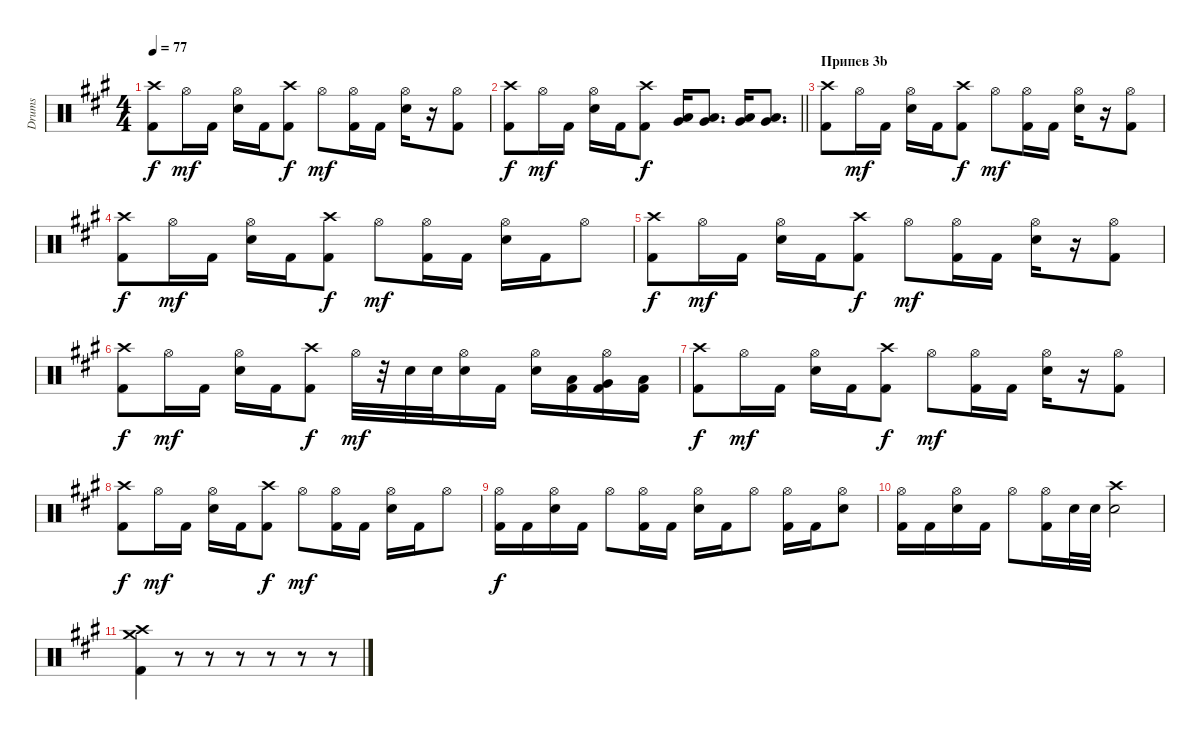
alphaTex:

\track ("Drums" "Drums") {instrument percussion}
\staff {score}
\articulation defaults
\ts (4 4)
\tempo 77
\clef neutral
\ks f#minor
("Crash high (hit)" "Kick (hit) 2").8{dy f} "Hi-Hat (open)".16{dy mf} "Kick (hit) 2".16 ("Hi-Hat (open)" "Electric Snare (hit)").16 "Kick (hit) 2".16 ("Crash high (hit)" "Kick (hit) 2").8{dy f} "Hi-Hat (open)".8{dy mf} ("Hi-Hat (open)" "Kick (hit) 2").16 "Kick (hit) 2".16 ("Hi-Hat (open)" "Electric Snare (hit)").16 r.16 ("Hi-Hat (open)" "Kick (hit) 2").8 |
\barLineRight lightlight
("Crash high (hit)" "Kick (hit) 2").8{dy f} "Hi-Hat (open)".16{dy mf} "Kick (hit) 2".16 ("Hi-Hat (open)" "Electric Snare (hit)").16 "Kick (hit) 2".16 ("Crash high (hit)" "Kick (hit) 2").8{dy f} ("Low Tom (hit)" "Very Low Tom (hit)").16 ("Low Tom (hit)" "Very Low Tom (hit)").8{d} ("Very Low Tom (hit)" "Low Floor Tom (hit)").16 ("Very Low Tom (hit)" "Low Floor Tom (hit)").8{d} |
\section ("" "Припев 3b")
("Crash high (hit)" "Kick (hit) 2").8 "Hi-Hat (open)".16{dy mf} "Kick (hit) 2".16 ("Hi-Hat (open)" "Electric Snare (hit)").16 "Kick (hit) 2".16 ("Crash high (hit)" "Kick (hit) 2").8{dy f} "Hi-Hat (open)".8{dy mf} ("Hi-Hat (open)" "Kick (hit) 2").16 "Kick (hit) 2".16 ("Hi-Hat (open)" "Electric Snare (hit)").16 r.16 ("Hi-Hat (open)" "Kick (hit) 2").8 |
("Crash high (hit)" "Kick (hit) 2").8{dy f} "Hi-Hat (open)".16{dy mf} "Kick (hit) 2".16 ("Hi-Hat (open)" "Electric Snare (hit)").16 "Kick (hit) 2".16 ("Crash high (hit)" "Kick (hit) 2").8{dy f} "Hi-Hat (open)".8{dy mf} ("Hi-Hat (open)" "Kick (hit) 2").16 "Kick (hit) 2".16 ("Hi-Hat (open)" "Electric Snare (hit)").16 "Kick (hit) 2".16 "Hi-Hat (open)".8 |
("Crash high (hit)" "Kick (hit) 2").8{dy f} "Hi-Hat (open)".16{dy mf} "Kick (hit) 2".16 ("Hi-Hat (open)" "Electric Snare (hit)").16 "Kick (hit) 2".16 ("Crash high (hit)" "Kick (hit) 2").8{dy f} "Hi-Hat (open)".8{dy mf} ("Hi-Hat (open)" "Kick (hit) 2").16 "Kick (hit) 2".16 ("Hi-Hat (open)" "Electric Snare (hit)").16 r.16 ("Hi-Hat (open)" "Kick (hit) 2").8 |
("Crash high (hit)" "Kick (hit) 2").8{dy f} "Hi-Hat (open)".16{dy mf} "Kick (hit) 2".16 ("Hi-Hat (open)" "Electric Snare (hit)").16 "Kick (hit) 2".16 ("Crash high (hit)" "Kick (hit) 2").8{dy f} "Hi-Hat (open)".32{dy mf} r.32 "Electric Snare (hit)".32 "Electric Snare (hit)".32 ("Hi-Hat (open)" "Electric Snare (hit)").16 "Kick (hit) 2".16 ("Hi-Hat (open)" "Electric Snare (hit)").16 ("Low Tom (hit)" "Kick (hit) 2").16 ("Hi-Hat (open)" "Very Low Tom (hit)" "Kick (hit) 2").16 ("Low Floor Tom (hit)" "Kick (hit) 2").16 |
("Crash high (hit)" "Kick (hit) 2").8{dy f} "Hi-Hat (open)".16{dy mf} "Kick (hit) 2".16 ("Hi-Hat (open)" "Electric Snare (hit)").16 "Kick (hit) 2".16 ("Crash high (hit)" "Kick (hit) 2").8{dy f} "Hi-Hat (open)".8{dy mf} ("Hi-Hat (open)" "Kick (hit) 2").16 "Kick (hit) 2".16 ("Hi-Hat (open)" "Electric Snare (hit)").16 r.16 ("Hi-Hat (open)" "Kick (hit) 2").8 |
("Crash high (hit)" "Kick (hit) 2").8{dy f} "Hi-Hat (open)".16{dy mf} "Kick (hit) 2".16 ("Hi-Hat (open)" "Electric Snare (hit)").16 "Kick (hit) 2".16 ("Crash high (hit)" "Kick (hit) 2").8{dy f} "Hi-Hat (open)".8{dy mf} ("Hi-Hat (open)" "Kick (hit) 2").16 "Kick (hit) 2".16 ("Hi-Hat (open)" "Electric Snare (hit)").16 "Kick (hit) 2".16 "Hi-Hat (open)".8 |
("Hi-Hat (open)" "Kick (hit) 2").16{dy f} "Kick (hit) 2".16 ("Hi-Hat (open)" "Electric Snare (hit)").16 "Kick (hit) 2".16 "Hi-Hat (open)".8 ("Hi-Hat (open)" "Kick (hit) 2").16 "Kick (hit) 2".16 ("Hi-Hat (open)" "Electric Snare (hit)").16 "Kick (hit) 2".16 "Hi-Hat (open)".8 ("Hi-Hat (open)" "Kick (hit) 2").16 "Kick (hit) 2".16 ("Hi-Hat (open)" "Electric Snare (hit)").8 |
("Hi-Hat (open)" "Kick (hit) 2").16 "Kick (hit) 2".16 ("Hi-Hat (open)" "Electric Snare (hit)").16 "Kick (hit) 2".16 "Hi-Hat (open)".8 ("Hi-Hat (open)" "Kick (hit) 2").16 "Electric Snare (hit)".32 "Electric Snare (hit)".32 ("Crash high (hit)" "Electric Snare (hit)").2 |
("Crash high (hit)" "Crash medium (hit)" "Kick (hit) 2").4 r.8 r.8 r.8 r.8 r.8 r.8
